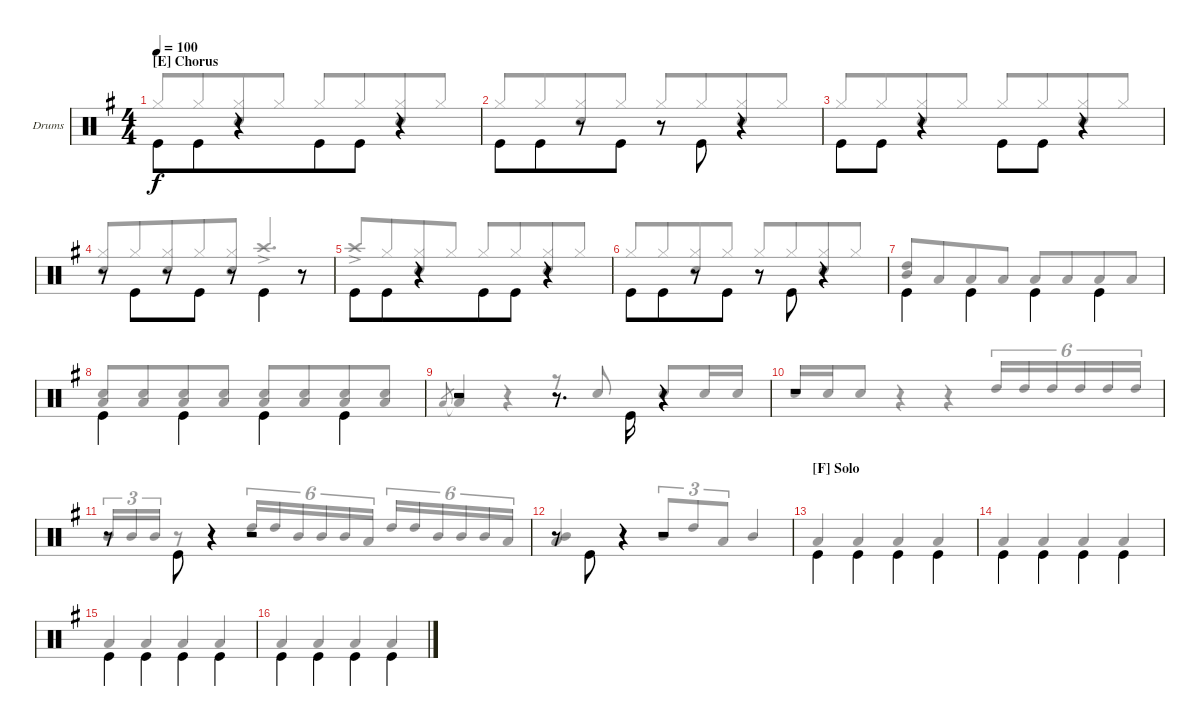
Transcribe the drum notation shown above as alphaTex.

\bracketExtendMode groupsimilarinstruments
\firstSystemTrackNameOrientation horizontal
\otherSystemsTrackNameOrientation horizontal
\track ("Drum" "Drums") {instrument percussion}
\staff {score}
\articulation defaults
\voice
\ts (4 4)
\section ("E" "Chorus")
\tempo 100
\clef neutral
\scale
1.04288
\ks g "Kick (hit)".8{dy f beam invert} "Kick (hit)".8{beam merge}
r.4{beam merge} "Kick (hit)".8{beam invert beam merge} "Kick (hit)".8{beam merge} r.4{beam merge} |
\scale
0.957125 "Kick (hit)".8{beam invert} "Kick (hit)".8{beam merge} r.8{beam merge} "Kick (hit)".8 r.8 "Kick (hit)".8{beam invert} r.4 |
\scale
1.04288 "Kick (hit)".8{beam invert} "Kick (hit)".8 r.4 "Kick (hit)".8{beam invert} "Kick (hit)".8 r.4 |
\scale
0.957125 r.8 "Kick (hit)".8{beam invert beam merge} r.8{beam merge} "Kick (hit)".8{beam split} r.8{beam split} "Kick (hit)".4{beam invert beam split} r.8{beam split} |
\scale
1.04288 "Kick (hit)".8{beam invert} "Kick (hit)".8{beam merge} r.4{beam merge} "Kick (hit)".8{beam invert beam merge} "Kick (hit)".8{beam merge} r.4{beam merge} |
\scale
0.957125 "Kick (hit)".8{beam invert} "Kick (hit)".8{beam merge} r.8{beam merge} "Kick (hit)".8 r.8 "Kick (hit)".8{beam invert} r.4 |
\scale
1.04288 "Kick (hit)".4{beam invert} "Kick (hit)".4{beam invert} "Kick (hit)".4{beam invert} "Kick (hit)".4{beam invert} |
\scale
0.957125 "Kick (hit)".4{beam invert} "Kick (hit)".4{beam invert} "Kick (hit)".4{beam invert} "Kick (hit)".4{beam invert} |
\scale
1.04288 r.2 r.8{d} "Kick (hit)".16{beam invert} r.4 |
\scale
0.957125 r.1 |
\scale
1.04288 r.8 "Kick (hit)".8{beam invert} r.4 r.2 |
\scale
0.957125 r.8 "Kick (hit)".8{beam invert} r.4 r.2 |
\section ("F" "Solo")
\scale
1.04288 "Kick (hit)".4{beam invert} "Kick (hit)".4{beam invert} "Kick (hit)".4{beam invert} "Kick (hit)".4{beam invert} |
\scale
0.957125 "Kick (hit)".4{beam invert} "Kick (hit)".4{beam invert} "Kick (hit)".4{beam invert} "Kick (hit)".4{beam invert} |
\scale
1.04288 "Kick (hit)".4{beam invert} "Kick (hit)".4{beam invert} "Kick (hit)".4{beam invert} "Kick (hit)".4{beam invert} |
\scale
0.957125 "Kick (hit)".4{beam invert} "Kick (hit)".4{beam invert} "Kick (hit)".4{beam invert} "Kick (hit)".4{beam invert}
\voice
\clef neutral
\ottava regular
\simile none
\scale
1.04288
\ks g "Hi-Hat (closed)".8{dy f beam invert beam merge} "Hi-Hat (closed)".8{beam merge}
("Hi-Hat (closed)" "Snare (hit) 2").8{beam merge} "Hi-Hat (closed)".8{beam split} "Hi-Hat (closed)".8{beam invert beam merge} "Hi-Hat (closed)".8{beam merge} ("Hi-Hat (closed)" "Snare (hit) 2").8{beam merge} "Hi-Hat (closed)".8{beam merge} |
\scale
0.957125 "Hi-Hat (closed)".8{beam invert beam merge} "Hi-Hat (closed)".8{beam merge} ("Hi-Hat (closed)" "Snare (hit) 2").8{beam merge} "Hi-Hat (closed)".8{beam split} "Hi-Hat (closed)".8{beam invert beam merge} "Hi-Hat (closed)".8{beam merge} ("Hi-Hat (closed)" "Snare (hit) 2").8{beam merge} "Hi-Hat (closed)".8{beam merge} |
\scale
1.04288 "Hi-Hat (closed)".8{beam invert beam merge} "Hi-Hat (closed)".8{beam merge} ("Hi-Hat (closed)" "Snare (hit) 2").8{beam merge} "Hi-Hat (closed)".8{beam split} "Hi-Hat (closed)".8{beam invert beam merge} "Hi-Hat (closed)".8{beam merge} ("Hi-Hat (closed)" "Snare (hit) 2").8{beam merge} "Hi-Hat (closed)".8{beam merge} |
\scale
0.957125 ("Hi-Hat (closed)" "Snare (hit) 2").8{beam invert} "Hi-Hat (closed)".8{beam merge} ("Hi-Hat (closed)" "Snare (hit) 2").8 "Hi-Hat (closed)".8{beam merge} ("Hi-Hat (closed)" "Snare (hit) 2").8{beam merge} "Crash high (hit)"{ac}.4{d beam invert} |
\scale
1.04288 "Crash high (hit)"{ac}.8{beam invert beam merge} "Hi-Hat (closed)".8{beam merge} ("Hi-Hat (closed)" "Snare (hit) 2").8{beam merge} "Hi-Hat (closed)".8{beam split} "Hi-Hat (closed)".8{beam invert beam merge} "Hi-Hat (closed)".8{beam merge} ("Hi-Hat (closed)" "Snare (hit) 2").8{beam merge} "Hi-Hat (closed)".8{beam merge} |
\scale
0.957125 "Hi-Hat (closed)".8{beam invert beam merge} "Hi-Hat (closed)".8{beam merge} ("Hi-Hat (closed)" "Snare (hit) 2").8{beam merge} "Hi-Hat (closed)".8{beam split} "Hi-Hat (closed)".8{beam invert beam merge} "Hi-Hat (closed)".8{beam merge} ("Hi-Hat (closed)" "Snare (hit) 2").8{beam merge} "Hi-Hat (closed)".8{beam merge} |
\scale
1.04288 ("High Tom (hit)" "Mid Tom (hit)").8{beam invert beam merge} "Low Tom (hit)".8{beam merge} "Low Tom (hit)".8{beam merge} "Low Tom (hit)".8{beam split} "Low Tom (hit)".8{beam invert beam merge} "Low Tom (hit)".8{beam merge} "Low Tom (hit)".8{beam merge} "Low Tom (hit)".8{beam merge} |
\scale
0.957125 ("Snare (hit) 2" "Low Tom (hit)").8{beam invert beam merge} ("Snare (hit) 2" "Low Tom (hit)").8{beam merge} ("Snare (hit) 2" "Low Tom (hit)").8{beam merge} ("Snare (hit) 2" "Low Tom (hit)").8{beam split} ("Snare (hit) 2" "Low Tom (hit)").8{beam invert beam merge} ("Snare (hit) 2" "Low Tom (hit)").8{beam merge} ("Snare (hit) 2" "Low Tom (hit)").8{beam merge} ("Snare (hit) 2" "Low Tom (hit)").8{beam merge} |
\scale
1.04288 "Low Tom (hit)".8{gr beam invert} "Low Tom (hit)"{t}.4{beam invert} r.4 r.8 "Snare (hit) 2".8{beam invert} "Snare (hit) 2".8{beam invert} "Snare (hit) 2".16{beam invert} "Snare (hit) 2".16{beam invert} |
\scale
0.957125 "Snare (hit) 2".16{beam invert} "Snare (hit) 2".16 "Snare (hit) 2".8 r.4 r.4 "High Tom (hit)".16{tu (6 4) beam invert} "High Tom (hit)".16{tu (6 4)} "High Tom (hit)".16{tu (6 4)} "High Tom (hit)".16{tu (6 4)} "High Tom (hit)".16{tu (6 4)} "High Tom (hit)".16{tu (6 4)} |
\scale
1.04288 "Mid Tom (hit)".16{tu (3 2) beam invert} "Mid Tom (hit)".16{tu (3 2) beam invert} "Mid Tom (hit)".16{tu (3 2) beam invert} r.8 r.4 "High Tom (hit)".16{tu (6 4) beam invert} "High Tom (hit)".16{tu (6 4)} "Mid Tom (hit)".16{tu (6 4)} "Mid Tom (hit)".16{tu (6 4)} "Mid Tom (hit)".16{tu (6 4)} "Low Tom (hit)".16{tu (6 4)} "High Tom (hit)".16{tu (6 4) beam invert} "High Tom (hit)".16{tu (6 4)} "Mid Tom (hit)".16{tu (6 4)} "Mid Tom (hit)".16{tu (6 4)} "Mid Tom (hit)".16{tu (6 4)} "Low Tom (hit)".16{tu (6 4)} |
\scale
0.957125 ("Low Tom (hit)" "Mid Tom (hit)").4{beam invert} r.4 "Mid Tom (hit)".8{tu (3 2) beam invert} "High Tom (hit)".8{tu (3 2)} "Low Tom (hit)".8{tu (3 2)} "Mid Tom (hit)".4{beam invert} |
\scale
1.04288 "Low Tom (hit)".4{beam invert} "Low Tom (hit)".4{beam invert} "Low Tom (hit)".4{beam invert} "Low Tom (hit)".4{beam invert} |
\scale
0.957125 "Low Tom (hit)".4{beam invert} "Low Tom (hit)".4{beam invert} "Low Tom (hit)".4{beam invert} "Low Tom (hit)".4{beam invert} |
\scale
1.04288 "Low Tom (hit)".4{beam invert} "Low Tom (hit)".4{beam invert} "Low Tom (hit)".4{beam invert} "Low Tom (hit)".4{beam invert} |
\scale
0.957125 "Low Tom (hit)".4{beam invert} "Low Tom (hit)".4{beam invert} "Low Tom (hit)".4{beam invert} "Low Tom (hit)".4{beam invert}
